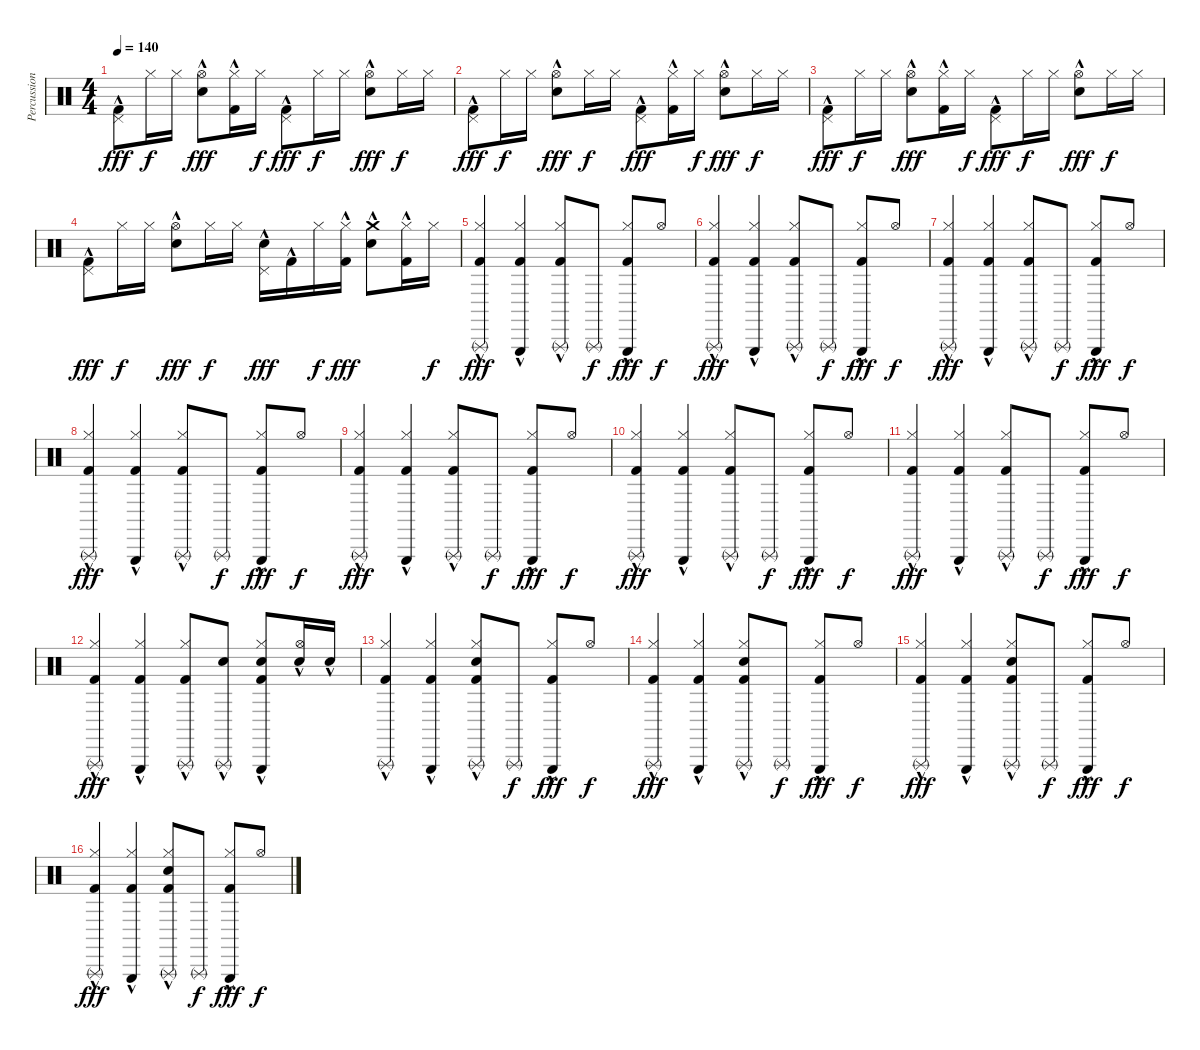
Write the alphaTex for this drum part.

\track ("Percussion" "Percussion") {instrument percussion}
\staff {score}
\articulation defaults
\ts (4 4)
\tempo 140
\clef neutral
\ks c
("Pedal Hi-Hat (hit)" "Kick (hit) 2"{hac}).8{dy fff} "Hi-Hat (closed)".16{dy f} "Hi-Hat (closed)".16 ("Hi-Hat (open)" "Electric Snare (hit)"{hac}).8{dy fff} ("Hi-Hat (closed)" "Kick (hit) 2"{hac}).16 "Hi-Hat (closed)".16{dy f} ("Pedal Hi-Hat (hit)" "Kick (hit) 2"{hac}).8{dy fff} "Hi-Hat (closed)".16{dy f} "Hi-Hat (closed)".16 ("Hi-Hat (open)" "Electric Snare (hit)"{hac}).8{dy fff} "Hi-Hat (closed)".16{dy f} "Hi-Hat (closed)".16 |
("Pedal Hi-Hat (hit)" "Kick (hit) 2"{hac}).8{dy fff} "Hi-Hat (closed)".16{dy f} "Hi-Hat (closed)".16 ("Hi-Hat (open)" "Electric Snare (hit)"{hac}).8{dy fff} "Hi-Hat (closed)".16{dy f} "Hi-Hat (closed)".16 ("Pedal Hi-Hat (hit)" "Kick (hit) 2"{hac}).8{dy fff} ("Hi-Hat (closed)" "Kick (hit) 2"{hac}).16 "Hi-Hat (closed)".16{dy f} ("Hi-Hat (open)" "Electric Snare (hit)"{hac}).8{dy fff} "Hi-Hat (closed)".16{dy f} "Hi-Hat (closed)".16 |
("Pedal Hi-Hat (hit)" "Kick (hit) 2"{hac}).8{dy fff} "Hi-Hat (closed)".16{dy f} "Hi-Hat (closed)".16 ("Hi-Hat (open)" "Electric Snare (hit)"{hac}).8{dy fff} ("Hi-Hat (closed)" "Kick (hit) 2"{hac}).16 "Hi-Hat (closed)".16{dy f} ("Pedal Hi-Hat (hit)" "Kick (hit) 2"{hac}).8{dy fff} "Hi-Hat (closed)".16{dy f} "Hi-Hat (closed)".16 ("Hi-Hat (open)" "Electric Snare (hit)"{hac}).8{dy fff} "Hi-Hat (closed)".16{dy f} "Hi-Hat (closed)".16 |
("Pedal Hi-Hat (hit)" "Kick (hit) 2"{hac}).8{dy fff} "Hi-Hat (closed)".16{dy f} "Hi-Hat (closed)".16 ("Hi-Hat (open)" "Electric Snare (hit)"{hac}).8{dy fff} "Hi-Hat (closed)".16{dy f} "Hi-Hat (closed)".16 ("Pedal Hi-Hat (hit)" "Electric Snare (hit)"{hac}).16{dy fff} "Kick (hit) 2"{hac}.16 "Hi-Hat (closed)".16{dy f} ("Hi-Hat (closed)" "Kick (hit) 2"{hac}).16{dy fff} ("Crash medium (hit)"{hac} "Electric Snare (hit)"{hac}).8 ("Hi-Hat (closed)"{hac} "Kick (hit) 2"{hac}).16 "Hi-Hat (closed)".16{dy f} |
("Triangle (rnute)" "Hi-Hat (closed)" "Kick (hit) 2"{hac}).4{dy fff} ("Triangle (hit)" "Hi-Hat (closed)" "Kick (hit) 2"{hac}).4 ("Triangle (rnute)" "Hi-Hat (closed)" "Kick (hit) 2"{hac}).8 "Triangle (rnute)".8{dy f} ("Triangle (hit)" "Hi-Hat (closed)" "Kick (hit) 2"{hac}).8{dy fff} "Hi-Hat (open)".8{dy f} |
("Triangle (rnute)" "Hi-Hat (closed)" "Kick (hit) 2"{hac}).4{dy fff} ("Triangle (hit)" "Hi-Hat (closed)" "Kick (hit) 2"{hac}).4 ("Triangle (rnute)" "Hi-Hat (closed)" "Kick (hit) 2"{hac}).8 "Triangle (rnute)".8{dy f} ("Triangle (hit)" "Hi-Hat (closed)" "Kick (hit) 2"{hac}).8{dy fff} "Hi-Hat (open)".8{dy f} |
("Triangle (rnute)" "Hi-Hat (closed)" "Kick (hit) 2"{hac}).4{dy fff} ("Triangle (hit)" "Hi-Hat (closed)" "Kick (hit) 2"{hac}).4 ("Triangle (rnute)" "Hi-Hat (closed)" "Kick (hit) 2"{hac}).8 "Triangle (rnute)".8{dy f} ("Triangle (hit)" "Hi-Hat (closed)" "Kick (hit) 2"{hac}).8{dy fff} "Hi-Hat (open)".8{dy f} |
("Triangle (rnute)" "Hi-Hat (closed)" "Kick (hit) 2"{hac}).4{dy fff} ("Triangle (hit)" "Hi-Hat (closed)" "Kick (hit) 2"{hac}).4 ("Triangle (rnute)" "Hi-Hat (closed)" "Kick (hit) 2"{hac}).8 "Triangle (rnute)".8{dy f} ("Triangle (hit)" "Hi-Hat (closed)" "Kick (hit) 2"{hac}).8{dy fff} "Hi-Hat (open)".8{dy f} |
("Triangle (rnute)" "Hi-Hat (closed)" "Kick (hit) 2"{hac}).4{dy fff} ("Triangle (hit)" "Hi-Hat (closed)" "Kick (hit) 2"{hac}).4 ("Triangle (rnute)" "Hi-Hat (closed)" "Kick (hit) 2"{hac}).8 "Triangle (rnute)".8{dy f} ("Triangle (hit)" "Hi-Hat (closed)" "Kick (hit) 2"{hac}).8{dy fff} "Hi-Hat (open)".8{dy f} |
("Triangle (rnute)" "Hi-Hat (closed)" "Kick (hit) 2"{hac}).4{dy fff} ("Triangle (hit)" "Hi-Hat (closed)" "Kick (hit) 2"{hac}).4 ("Triangle (rnute)" "Hi-Hat (closed)" "Kick (hit) 2"{hac}).8 "Triangle (rnute)".8{dy f} ("Triangle (hit)" "Hi-Hat (closed)" "Kick (hit) 2"{hac}).8{dy fff} "Hi-Hat (open)".8{dy f} |
("Triangle (rnute)" "Hi-Hat (closed)" "Kick (hit) 2"{hac}).4{dy fff} ("Triangle (hit)" "Hi-Hat (closed)" "Kick (hit) 2"{hac}).4 ("Triangle (rnute)" "Hi-Hat (closed)" "Kick (hit) 2"{hac}).8 "Triangle (rnute)".8{dy f} ("Triangle (hit)" "Hi-Hat (closed)" "Kick (hit) 2"{hac}).8{dy fff} "Hi-Hat (open)".8{dy f} |
("Triangle (rnute)" "Hi-Hat (closed)" "Kick (hit) 2"{hac}).4{dy fff} ("Triangle (hit)" "Hi-Hat (closed)" "Kick (hit) 2"{hac}).4 ("Triangle (rnute)" "Hi-Hat (closed)" "Kick (hit) 2"{hac}).8 ("Triangle (rnute)" "Electric Snare (hit)"{hac}).8 ("Triangle (hit)" "Hi-Hat (closed)" "Electric Snare (hit)"{hac} "Kick (hit) 2"{hac}).8 ("Hi-Hat (open)" "Electric Snare (hit)"{hac}).16 "Electric Snare (hit)"{hac}.16 |
("Triangle (rnute)" "Hi-Hat (closed)" "Kick (hit) 2"{hac}).4 ("Triangle (hit)" "Hi-Hat (closed)" "Kick (hit) 2"{hac}).4 ("Triangle (rnute)" "Hi-Hat (closed)" "Electric Snare (hit)"{hac} "Kick (hit) 2"{hac}).8 "Triangle (rnute)".8{dy f} ("Triangle (hit)" "Hi-Hat (closed)" "Kick (hit) 2"{hac}).8{dy fff} "Hi-Hat (open)".8{dy f} |
("Triangle (rnute)" "Hi-Hat (closed)" "Kick (hit) 2"{hac}).4{dy fff} ("Triangle (hit)" "Hi-Hat (closed)" "Kick (hit) 2"{hac}).4 ("Triangle (rnute)" "Hi-Hat (closed)" "Electric Snare (hit)"{hac} "Kick (hit) 2"{hac}).8 "Triangle (rnute)".8{dy f} ("Triangle (hit)" "Hi-Hat (closed)" "Kick (hit) 2"{hac}).8{dy fff} "Hi-Hat (open)".8{dy f} |
("Triangle (rnute)" "Hi-Hat (closed)" "Kick (hit) 2"{hac}).4{dy fff} ("Triangle (hit)" "Hi-Hat (closed)" "Kick (hit) 2"{hac}).4 ("Triangle (rnute)" "Hi-Hat (closed)" "Electric Snare (hit)"{hac} "Kick (hit) 2"{hac}).8 "Triangle (rnute)".8{dy f} ("Triangle (hit)" "Hi-Hat (closed)" "Kick (hit) 2"{hac}).8{dy fff} "Hi-Hat (open)".8{dy f} |
("Triangle (rnute)" "Hi-Hat (closed)" "Kick (hit) 2"{hac}).4{dy fff} ("Triangle (hit)" "Hi-Hat (closed)" "Kick (hit) 2"{hac}).4 ("Triangle (rnute)" "Hi-Hat (closed)" "Electric Snare (hit)"{hac} "Kick (hit) 2"{hac}).8 "Triangle (rnute)".8{dy f} ("Triangle (hit)" "Hi-Hat (closed)" "Kick (hit) 2"{hac}).8{dy fff} "Hi-Hat (open)".8{dy f}
